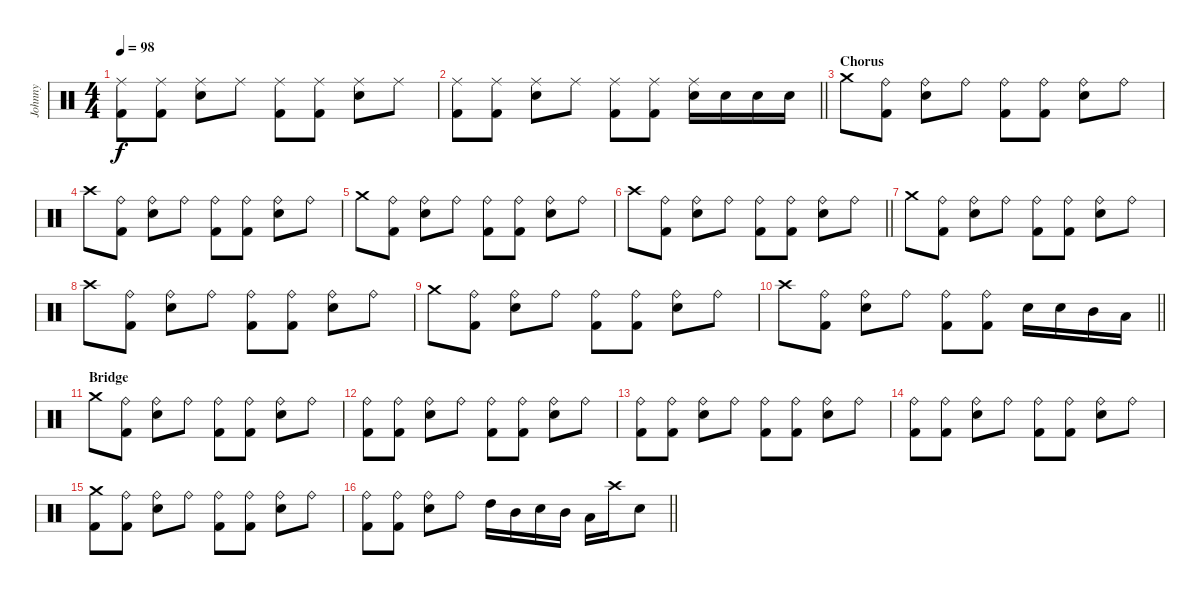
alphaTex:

\track ("Johnny" "Johnny") {instrument percussion}
\staff {score}
\articulation defaults
\ts (4 4)
\tempo 98
\clef neutral
\ks c
("Kick (hit) 2" "Ride (middle)").8{dy f} ("Kick (hit) 2" "Ride (middle)").8 ("Electric Snare (hit)" "Ride (middle)").8 "Ride (middle)".8 ("Kick (hit) 2" "Ride (middle)").8 ("Kick (hit) 2" "Ride (middle)").8 ("Electric Snare (hit)" "Ride (middle)").8 "Ride (middle)".8 |
\barLineRight lightlight
("Kick (hit) 2" "Ride (middle)").8 ("Kick (hit) 2" "Ride (middle)").8 ("Electric Snare (hit)" "Ride (middle)").8 "Ride (middle)".8 ("Kick (hit) 2" "Ride (middle)").8 ("Kick (hit) 2" "Ride (middle)").8 ("Electric Snare (hit)" "Ride (middle)").16 "Electric Snare (hit)".16 "Electric Snare (hit)".16 "Electric Snare (hit)".16 |
\section ("" "Chorus")
"Crash medium (hit)".8 ("Kick (hit) 2" "Ride (bell)").8 ("Electric Snare (hit)" "Ride (bell)").8 "Ride (bell)".8 ("Kick (hit) 2" "Ride (bell)").8 ("Kick (hit) 2" "Ride (bell)").8 ("Electric Snare (hit)" "Ride (bell)").8 "Ride (bell)".8 |
"Crash high (hit)".8 ("Kick (hit) 2" "Ride (bell)").8 ("Electric Snare (hit)" "Ride (bell)").8 "Ride (bell)".8 ("Kick (hit) 2" "Ride (bell)").8 ("Kick (hit) 2" "Ride (bell)").8 ("Electric Snare (hit)" "Ride (bell)").8 "Ride (bell)".8 |
"Crash medium (hit)".8 ("Kick (hit) 2" "Ride (bell)").8 ("Electric Snare (hit)" "Ride (bell)").8 "Ride (bell)".8 ("Kick (hit) 2" "Ride (bell)").8 ("Kick (hit) 2" "Ride (bell)").8 ("Electric Snare (hit)" "Ride (bell)").8 "Ride (bell)".8 |
\barLineRight lightlight "Crash high (hit)".8
("Kick (hit) 2" "Ride (bell)").8 ("Electric Snare (hit)" "Ride (bell)").8 "Ride (bell)".8 ("Kick (hit) 2" "Ride (bell)").8 ("Kick (hit) 2" "Ride (bell)").8 ("Electric Snare (hit)" "Ride (bell)").8 "Ride (bell)".8 |
"Crash medium (hit)".8 ("Kick (hit) 2" "Ride (bell)").8 ("Electric Snare (hit)" "Ride (bell)").8 "Ride (bell)".8 ("Kick (hit) 2" "Ride (bell)").8 ("Kick (hit) 2" "Ride (bell)").8 ("Electric Snare (hit)" "Ride (bell)").8 "Ride (bell)".8 |
"Crash high (hit)".8 ("Kick (hit) 2" "Ride (bell)").8 ("Electric Snare (hit)" "Ride (bell)").8 "Ride (bell)".8 ("Kick (hit) 2" "Ride (bell)").8 ("Kick (hit) 2" "Ride (bell)").8 ("Electric Snare (hit)" "Ride (bell)").8 "Ride (bell)".8 |
"Crash medium (hit)".8 ("Kick (hit) 2" "Ride (bell)").8 ("Electric Snare (hit)" "Ride (bell)").8 "Ride (bell)".8 ("Kick (hit) 2" "Ride (bell)").8 ("Kick (hit) 2" "Ride (bell)").8 ("Electric Snare (hit)" "Ride (bell)").8 "Ride (bell)".8 |
\barLineRight lightlight "Crash high (hit)".8
("Kick (hit) 2" "Ride (bell)").8 ("Electric Snare (hit)" "Ride (bell)").8 "Ride (bell)".8 ("Kick (hit) 2" "Ride (bell)").8 ("Kick (hit) 2" "Ride (bell)").8 "Electric Snare (hit)".16 "Electric Snare (hit)".16 "Mid Tom (hit)".16 "Low Tom (hit)".16 |
\section ("" "Bridge")
"Crash medium (hit)".8 ("Kick (hit) 2" "Ride (bell)").8 ("Electric Snare (hit)" "Ride (bell)").8 "Ride (bell)".8 ("Kick (hit) 2" "Ride (bell)").8 ("Kick (hit) 2" "Ride (bell)").8 ("Electric Snare (hit)" "Ride (bell)").8 "Ride (bell)".8 |
("Kick (hit) 2" "Ride (bell)").8 ("Kick (hit) 2" "Ride (bell)").8 ("Electric Snare (hit)" "Ride (bell)").8 "Ride (bell)".8 ("Kick (hit) 2" "Ride (bell)").8 ("Kick (hit) 2" "Ride (bell)").8 ("Electric Snare (hit)" "Ride (bell)").8 "Ride (bell)".8 |
("Kick (hit) 2" "Ride (bell)").8 ("Kick (hit) 2" "Ride (bell)").8 ("Electric Snare (hit)" "Ride (bell)").8 "Ride (bell)".8 ("Kick (hit) 2" "Ride (bell)").8 ("Kick (hit) 2" "Ride (bell)").8 ("Electric Snare (hit)" "Ride (bell)").8 "Ride (bell)".8 |
("Kick (hit) 2" "Ride (bell)").8 ("Kick (hit) 2" "Ride (bell)").8 ("Electric Snare (hit)" "Ride (bell)").8 "Ride (bell)".8 ("Kick (hit) 2" "Ride (bell)").8 ("Kick (hit) 2" "Ride (bell)").8 ("Electric Snare (hit)" "Ride (bell)").8 "Ride (bell)".8 |
("Kick (hit) 2" "Crash medium (hit)").8 ("Kick (hit) 2" "Ride (bell)").8 ("Electric Snare (hit)" "Ride (bell)").8 "Ride (bell)".8 ("Kick (hit) 2" "Ride (bell)").8 ("Kick (hit) 2" "Ride (bell)").8 ("Electric Snare (hit)" "Ride (bell)").8 "Ride (bell)".8 |
\barLineRight lightlight
("Kick (hit) 2" "Ride (bell)").8 ("Kick (hit) 2" "Ride (bell)").8 ("Electric Snare (hit)" "Ride (bell)").8 "Ride (bell)".8 "High Tom (hit)".16 "Mid Tom (hit)".16 "Electric Snare (hit)".16 "Mid Tom (hit)".16 "Low Tom (hit)".16 "Crash high (hit)".16 "Electric Snare (hit)".8
